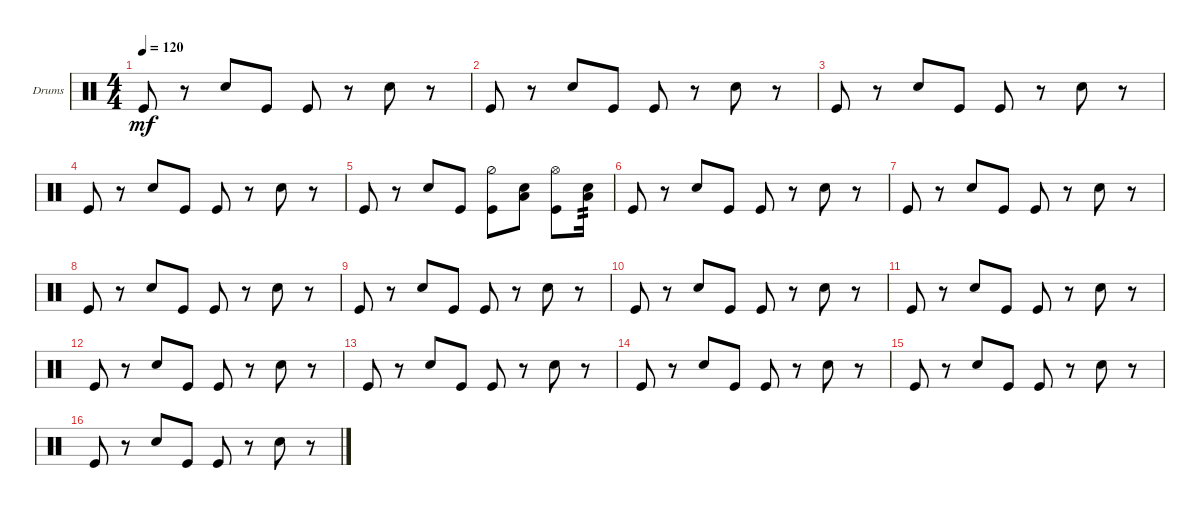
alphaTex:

\defaultSystemsLayout 4
\bracketExtendMode groupsimilarinstruments
\firstSystemTrackNameOrientation horizontal
\otherSystemsTrackNameOrientation horizontal
\track ("Drumkit" "Drums") {instrument percussion}
\staff {score}
\articulation defaults
\ts (4 4)
\tempo 120
\clef neutral
\ks c "Kick (hit)".8{dy mf}
r.8 "Snare (hit) 2".8 "Kick (hit)".8 "Kick (hit)".8 r.8 "Snare (hit) 2".8 r.8 |
"Kick (hit)".8 r.8 "Snare (hit) 2".8 "Kick (hit)".8 "Kick (hit)".8 r.8 "Snare (hit) 2".8 r.8 |
"Kick (hit)".8 r.8 "Snare (hit) 2".8 "Kick (hit)".8 "Kick (hit)".8 r.8 "Snare (hit) 2".8 r.8 |
"Kick (hit)".8 r.8 "Snare (hit) 2".8 "Kick (hit)".8 "Kick (hit)".8 r.8 "Snare (hit) 2".8 r.8 |
"Kick (hit)".8 r.8 "Snare (hit) 2".8 "Kick (hit)".8 ("Kick (hit)" "Hi-Hat (half)").8 ("Snare (hit) 2" "Low Tom (hit)").8 ("Kick (hit)" "Hi-Hat (open)").8 ("Snare (hit) 2" "Low Tom (hit)").16{tp 2} |
"Kick (hit)".8 r.8 "Snare (hit) 2".8 "Kick (hit)".8 "Kick (hit)".8 r.8 "Snare (hit) 2".8 r.8 |
"Kick (hit)".8 r.8 "Snare (hit) 2".8 "Kick (hit)".8 "Kick (hit)".8 r.8 "Snare (hit) 2".8 r.8 |
"Kick (hit)".8 r.8 "Snare (hit) 2".8 "Kick (hit)".8 "Kick (hit)".8 r.8 "Snare (hit) 2".8 r.8 |
"Kick (hit)".8 r.8 "Snare (hit) 2".8 "Kick (hit)".8 "Kick (hit)".8 r.8 "Snare (hit) 2".8 r.8 |
"Kick (hit)".8 r.8 "Snare (hit) 2".8 "Kick (hit)".8 "Kick (hit)".8 r.8 "Snare (hit) 2".8 r.8 |
"Kick (hit)".8 r.8 "Snare (hit) 2".8 "Kick (hit)".8 "Kick (hit)".8 r.8 "Snare (hit) 2".8 r.8 |
"Kick (hit)".8 r.8 "Snare (hit) 2".8 "Kick (hit)".8 "Kick (hit)".8 r.8 "Snare (hit) 2".8 r.8 |
"Kick (hit)".8 r.8 "Snare (hit) 2".8 "Kick (hit)".8 "Kick (hit)".8 r.8 "Snare (hit) 2".8 r.8 |
"Kick (hit)".8 r.8 "Snare (hit) 2".8 "Kick (hit)".8 "Kick (hit)".8 r.8 "Snare (hit) 2".8 r.8 |
"Kick (hit)".8 r.8 "Snare (hit) 2".8 "Kick (hit)".8 "Kick (hit)".8 r.8 "Snare (hit) 2".8 r.8 |
"Kick (hit)".8 r.8 "Snare (hit) 2".8 "Kick (hit)".8 "Kick (hit)".8 r.8 "Snare (hit) 2".8 r.8
